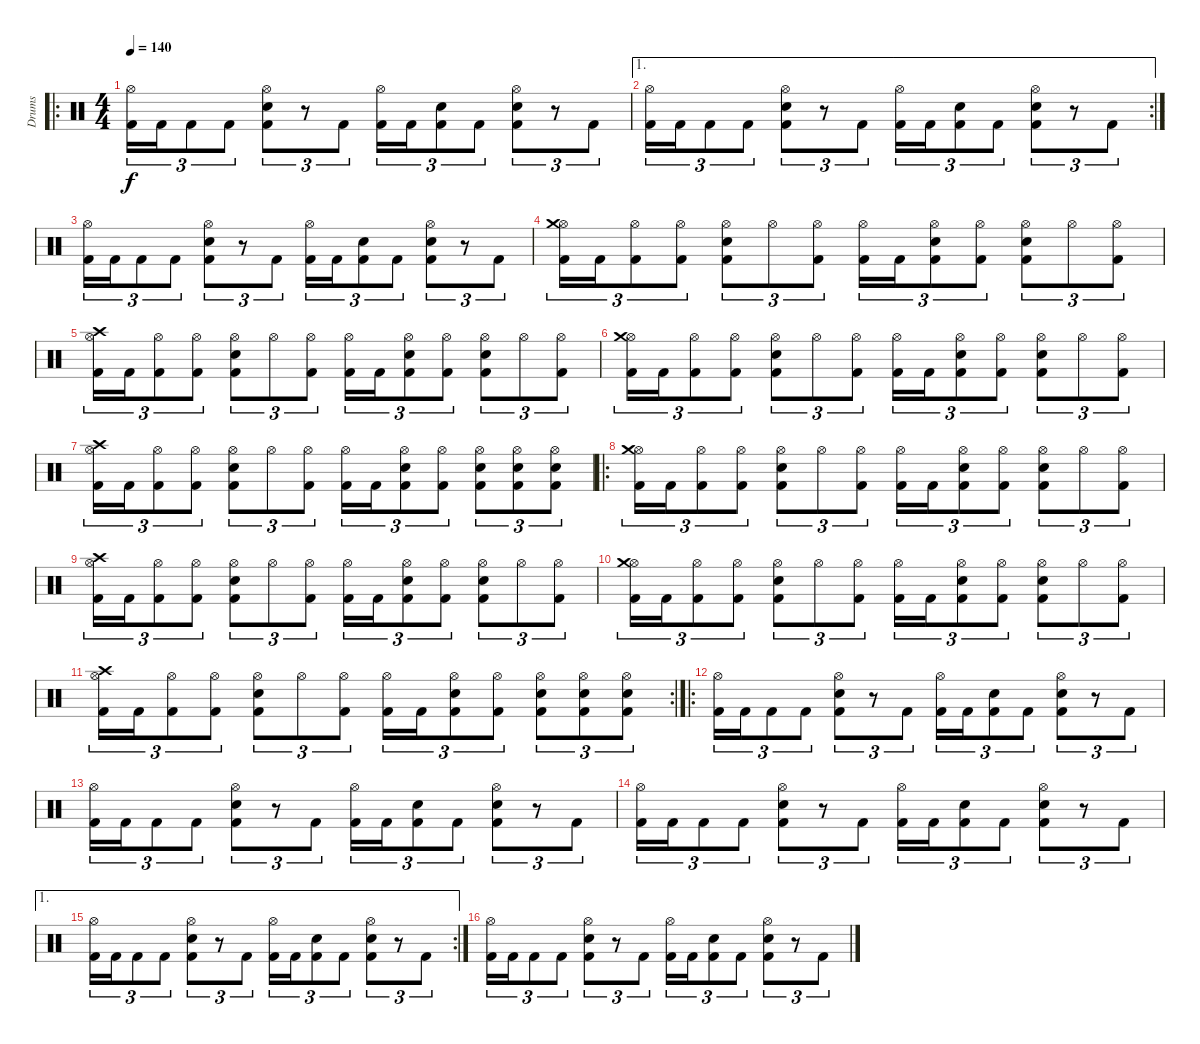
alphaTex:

\track ("Drums" "Drums") {instrument percussion}
\staff {score}
\articulation defaults
\ro
\ts (4 4)
\tempo 140
\clef neutral
\ks c
("Hi-Hat (open)" "Kick (hit) 2").16{tu (3 2) dy f} "Kick (hit) 2".16{tu (3 2)} "Kick (hit) 2".8{tu (3 2)} "Kick (hit) 2".8{tu (3 2)} ("Hi-Hat (open)" "Snare (hit) 2" "Kick (hit) 2").8{tu (3 2)} r.8{tu (3 2)} "Kick (hit) 2".8{tu (3 2)} ("Hi-Hat (open)" "Kick (hit) 2").16{tu (3 2)} "Kick (hit) 2".16{tu (3 2)} ("Snare (hit) 2" "Kick (hit) 2").8{tu (3 2)} "Kick (hit) 2".8{tu (3 2)} ("Hi-Hat (open)" "Snare (hit) 2" "Kick (hit) 2").8{tu (3 2)} r.8{tu (3 2)} "Kick (hit) 2".8{tu (3 2)} |
\ae 1
\rc 2
("Hi-Hat (open)" "Kick (hit) 2").16{tu (3 2)} "Kick (hit) 2".16{tu (3 2)} "Kick (hit) 2".8{tu (3 2)} "Kick (hit) 2".8{tu (3 2)} ("Hi-Hat (open)" "Snare (hit) 2" "Kick (hit) 2").8{tu (3 2)} r.8{tu (3 2)} "Kick (hit) 2".8{tu (3 2)} ("Hi-Hat (open)" "Kick (hit) 2").16{tu (3 2)} "Kick (hit) 2".16{tu (3 2)} ("Snare (hit) 2" "Kick (hit) 2").8{tu (3 2)} "Kick (hit) 2".8{tu (3 2)} ("Hi-Hat (open)" "Snare (hit) 2" "Kick (hit) 2").8{tu (3 2)} r.8{tu (3 2)} "Kick (hit) 2".8{tu (3 2)} |
("Hi-Hat (open)" "Kick (hit) 2").16{tu (3 2)} "Kick (hit) 2".16{tu (3 2)} "Kick (hit) 2".8{tu (3 2)} "Kick (hit) 2".8{tu (3 2)} ("Hi-Hat (open)" "Snare (hit) 2" "Kick (hit) 2").8{tu (3 2)} r.8{tu (3 2)} "Kick (hit) 2".8{tu (3 2)} ("Hi-Hat (open)" "Kick (hit) 2").16{tu (3 2)} "Kick (hit) 2".16{tu (3 2)} ("Snare (hit) 2" "Kick (hit) 2").8{tu (3 2)} "Kick (hit) 2".8{tu (3 2)} ("Hi-Hat (open)" "Snare (hit) 2" "Kick (hit) 2").8{tu (3 2)} r.8{tu (3 2)} "Kick (hit) 2".8{tu (3 2)} |
("Hi-Hat (open)" "Crash medium (hit)" "Kick (hit) 2").16{tu (3 2)} "Kick (hit) 2".16{tu (3 2)} ("Hi-Hat (open)" "Kick (hit) 2").8{tu (3 2)} ("Hi-Hat (open)" "Kick (hit) 2").8{tu (3 2)} ("Hi-Hat (open)" "Snare (hit) 2" "Kick (hit) 2").8{tu (3 2)} "Hi-Hat (open)".8{tu (3 2)} ("Hi-Hat (open)" "Kick (hit) 2").8{tu (3 2)} ("Hi-Hat (open)" "Kick (hit) 2").16{tu (3 2)} "Kick (hit) 2".16{tu (3 2)} ("Hi-Hat (open)" "Snare (hit) 2" "Kick (hit) 2").8{tu (3 2)} ("Hi-Hat (open)" "Kick (hit) 2").8{tu (3 2)} ("Hi-Hat (open)" "Snare (hit) 2" "Kick (hit) 2").8{tu (3 2)} "Hi-Hat (open)".8{tu (3 2)} ("Hi-Hat (open)" "Kick (hit) 2").8{tu (3 2)} |
("Hi-Hat (open)" "Crash high (hit)" "Kick (hit) 2").16{tu (3 2)} "Kick (hit) 2".16{tu (3 2)} ("Hi-Hat (open)" "Kick (hit) 2").8{tu (3 2)} ("Hi-Hat (open)" "Kick (hit) 2").8{tu (3 2)} ("Hi-Hat (open)" "Snare (hit) 2" "Kick (hit) 2").8{tu (3 2)} "Hi-Hat (open)".8{tu (3 2)} ("Hi-Hat (open)" "Kick (hit) 2").8{tu (3 2)} ("Hi-Hat (open)" "Kick (hit) 2").16{tu (3 2)} "Kick (hit) 2".16{tu (3 2)} ("Hi-Hat (open)" "Snare (hit) 2" "Kick (hit) 2").8{tu (3 2)} ("Hi-Hat (open)" "Kick (hit) 2").8{tu (3 2)} ("Hi-Hat (open)" "Snare (hit) 2" "Kick (hit) 2").8{tu (3 2)} "Hi-Hat (open)".8{tu (3 2)} ("Hi-Hat (open)" "Kick (hit) 2").8{tu (3 2)} |
("Hi-Hat (open)" "Crash medium (hit)" "Kick (hit) 2").16{tu (3 2)} "Kick (hit) 2".16{tu (3 2)} ("Hi-Hat (open)" "Kick (hit) 2").8{tu (3 2)} ("Hi-Hat (open)" "Kick (hit) 2").8{tu (3 2)} ("Hi-Hat (open)" "Snare (hit) 2" "Kick (hit) 2").8{tu (3 2)} "Hi-Hat (open)".8{tu (3 2)} ("Hi-Hat (open)" "Kick (hit) 2").8{tu (3 2)} ("Hi-Hat (open)" "Kick (hit) 2").16{tu (3 2)} "Kick (hit) 2".16{tu (3 2)} ("Hi-Hat (open)" "Snare (hit) 2" "Kick (hit) 2").8{tu (3 2)} ("Hi-Hat (open)" "Kick (hit) 2").8{tu (3 2)} ("Hi-Hat (open)" "Snare (hit) 2" "Kick (hit) 2").8{tu (3 2)} "Hi-Hat (open)".8{tu (3 2)} ("Hi-Hat (open)" "Kick (hit) 2").8{tu (3 2)} |
("Hi-Hat (open)" "Crash high (hit)" "Kick (hit) 2").16{tu (3 2)} "Kick (hit) 2".16{tu (3 2)} ("Hi-Hat (open)" "Kick (hit) 2").8{tu (3 2)} ("Hi-Hat (open)" "Kick (hit) 2").8{tu (3 2)} ("Hi-Hat (open)" "Snare (hit) 2" "Kick (hit) 2").8{tu (3 2)} "Hi-Hat (open)".8{tu (3 2)} ("Hi-Hat (open)" "Kick (hit) 2").8{tu (3 2)} ("Hi-Hat (open)" "Kick (hit) 2").16{tu (3 2)} "Kick (hit) 2".16{tu (3 2)} ("Hi-Hat (open)" "Snare (hit) 2" "Kick (hit) 2").8{tu (3 2)} ("Hi-Hat (open)" "Kick (hit) 2").8{tu (3 2)} ("Hi-Hat (open)" "Snare (hit) 2" "Kick (hit) 2").8{tu (3 2)} ("Hi-Hat (open)" "Snare (hit) 2" "Kick (hit) 2").8{tu (3 2)} ("Hi-Hat (open)" "Snare (hit) 2" "Kick (hit) 2").8{tu (3 2)} |
\ro
("Hi-Hat (open)" "Crash medium (hit)" "Kick (hit) 2").16{tu (3 2)} "Kick (hit) 2".16{tu (3 2)} ("Hi-Hat (open)" "Kick (hit) 2").8{tu (3 2)} ("Hi-Hat (open)" "Kick (hit) 2").8{tu (3 2)} ("Hi-Hat (open)" "Snare (hit) 2" "Kick (hit) 2").8{tu (3 2)} "Hi-Hat (open)".8{tu (3 2)} ("Hi-Hat (open)" "Kick (hit) 2").8{tu (3 2)} ("Hi-Hat (open)" "Kick (hit) 2").16{tu (3 2)} "Kick (hit) 2".16{tu (3 2)} ("Hi-Hat (open)" "Snare (hit) 2" "Kick (hit) 2").8{tu (3 2)} ("Hi-Hat (open)" "Kick (hit) 2").8{tu (3 2)} ("Hi-Hat (open)" "Snare (hit) 2" "Kick (hit) 2").8{tu (3 2)} "Hi-Hat (open)".8{tu (3 2)} ("Hi-Hat (open)" "Kick (hit) 2").8{tu (3 2)} |
("Hi-Hat (open)" "Crash high (hit)" "Kick (hit) 2").16{tu (3 2)} "Kick (hit) 2".16{tu (3 2)} ("Hi-Hat (open)" "Kick (hit) 2").8{tu (3 2)} ("Hi-Hat (open)" "Kick (hit) 2").8{tu (3 2)} ("Hi-Hat (open)" "Snare (hit) 2" "Kick (hit) 2").8{tu (3 2)} "Hi-Hat (open)".8{tu (3 2)} ("Hi-Hat (open)" "Kick (hit) 2").8{tu (3 2)} ("Hi-Hat (open)" "Kick (hit) 2").16{tu (3 2)} "Kick (hit) 2".16{tu (3 2)} ("Hi-Hat (open)" "Snare (hit) 2" "Kick (hit) 2").8{tu (3 2)} ("Hi-Hat (open)" "Kick (hit) 2").8{tu (3 2)} ("Hi-Hat (open)" "Snare (hit) 2" "Kick (hit) 2").8{tu (3 2)} "Hi-Hat (open)".8{tu (3 2)} ("Hi-Hat (open)" "Kick (hit) 2").8{tu (3 2)} |
("Hi-Hat (open)" "Crash medium (hit)" "Kick (hit) 2").16{tu (3 2)} "Kick (hit) 2".16{tu (3 2)} ("Hi-Hat (open)" "Kick (hit) 2").8{tu (3 2)} ("Hi-Hat (open)" "Kick (hit) 2").8{tu (3 2)} ("Hi-Hat (open)" "Snare (hit) 2" "Kick (hit) 2").8{tu (3 2)} "Hi-Hat (open)".8{tu (3 2)} ("Hi-Hat (open)" "Kick (hit) 2").8{tu (3 2)} ("Hi-Hat (open)" "Kick (hit) 2").16{tu (3 2)} "Kick (hit) 2".16{tu (3 2)} ("Hi-Hat (open)" "Snare (hit) 2" "Kick (hit) 2").8{tu (3 2)} ("Hi-Hat (open)" "Kick (hit) 2").8{tu (3 2)} ("Hi-Hat (open)" "Snare (hit) 2" "Kick (hit) 2").8{tu (3 2)} "Hi-Hat (open)".8{tu (3 2)} ("Hi-Hat (open)" "Kick (hit) 2").8{tu (3 2)} |
\rc 2
("Hi-Hat (open)" "Crash high (hit)" "Kick (hit) 2").16{tu (3 2)} "Kick (hit) 2".16{tu (3 2)} ("Hi-Hat (open)" "Kick (hit) 2").8{tu (3 2)} ("Hi-Hat (open)" "Kick (hit) 2").8{tu (3 2)} ("Hi-Hat (open)" "Snare (hit) 2" "Kick (hit) 2").8{tu (3 2)} "Hi-Hat (open)".8{tu (3 2)} ("Hi-Hat (open)" "Kick (hit) 2").8{tu (3 2)} ("Hi-Hat (open)" "Kick (hit) 2").16{tu (3 2)} "Kick (hit) 2".16{tu (3 2)} ("Hi-Hat (open)" "Snare (hit) 2" "Kick (hit) 2").8{tu (3 2)} ("Hi-Hat (open)" "Kick (hit) 2").8{tu (3 2)} ("Hi-Hat (open)" "Snare (hit) 2" "Kick (hit) 2").8{tu (3 2)} ("Hi-Hat (open)" "Snare (hit) 2" "Kick (hit) 2").8{tu (3 2)} ("Hi-Hat (open)" "Snare (hit) 2" "Kick (hit) 2").8{tu (3 2)} |
\ro
("Hi-Hat (open)" "Kick (hit) 2").16{tu (3 2)} "Kick (hit) 2".16{tu (3 2)} "Kick (hit) 2".8{tu (3 2)} "Kick (hit) 2".8{tu (3 2)} ("Hi-Hat (open)" "Snare (hit) 2" "Kick (hit) 2").8{tu (3 2)} r.8{tu (3 2)} "Kick (hit) 2".8{tu (3 2)} ("Hi-Hat (open)" "Kick (hit) 2").16{tu (3 2)} "Kick (hit) 2".16{tu (3 2)} ("Snare (hit) 2" "Kick (hit) 2").8{tu (3 2)} "Kick (hit) 2".8{tu (3 2)} ("Hi-Hat (open)" "Snare (hit) 2" "Kick (hit) 2").8{tu (3 2)} r.8{tu (3 2)} "Kick (hit) 2".8{tu (3 2)} |
("Hi-Hat (open)" "Kick (hit) 2").16{tu (3 2)} "Kick (hit) 2".16{tu (3 2)} "Kick (hit) 2".8{tu (3 2)} "Kick (hit) 2".8{tu (3 2)} ("Hi-Hat (open)" "Snare (hit) 2" "Kick (hit) 2").8{tu (3 2)} r.8{tu (3 2)} "Kick (hit) 2".8{tu (3 2)} ("Hi-Hat (open)" "Kick (hit) 2").16{tu (3 2)} "Kick (hit) 2".16{tu (3 2)} ("Snare (hit) 2" "Kick (hit) 2").8{tu (3 2)} "Kick (hit) 2".8{tu (3 2)} ("Hi-Hat (open)" "Snare (hit) 2" "Kick (hit) 2").8{tu (3 2)} r.8{tu (3 2)} "Kick (hit) 2".8{tu (3 2)} |
("Hi-Hat (open)" "Kick (hit) 2").16{tu (3 2)} "Kick (hit) 2".16{tu (3 2)} "Kick (hit) 2".8{tu (3 2)} "Kick (hit) 2".8{tu (3 2)} ("Hi-Hat (open)" "Snare (hit) 2" "Kick (hit) 2").8{tu (3 2)} r.8{tu (3 2)} "Kick (hit) 2".8{tu (3 2)} ("Hi-Hat (open)" "Kick (hit) 2").16{tu (3 2)} "Kick (hit) 2".16{tu (3 2)} ("Snare (hit) 2" "Kick (hit) 2").8{tu (3 2)} "Kick (hit) 2".8{tu (3 2)} ("Hi-Hat (open)" "Snare (hit) 2" "Kick (hit) 2").8{tu (3 2)} r.8{tu (3 2)} "Kick (hit) 2".8{tu (3 2)} |
\ae 1
\rc 2
("Hi-Hat (open)" "Kick (hit) 2").16{tu (3 2)} "Kick (hit) 2".16{tu (3 2)} "Kick (hit) 2".8{tu (3 2)} "Kick (hit) 2".8{tu (3 2)} ("Hi-Hat (open)" "Snare (hit) 2" "Kick (hit) 2").8{tu (3 2)} r.8{tu (3 2)} "Kick (hit) 2".8{tu (3 2)} ("Hi-Hat (open)" "Kick (hit) 2").16{tu (3 2)} "Kick (hit) 2".16{tu (3 2)} ("Snare (hit) 2" "Kick (hit) 2").8{tu (3 2)} "Kick (hit) 2".8{tu (3 2)} ("Hi-Hat (open)" "Snare (hit) 2" "Kick (hit) 2").8{tu (3 2)} r.8{tu (3 2)} "Kick (hit) 2".8{tu (3 2)} |
("Hi-Hat (open)" "Kick (hit) 2").16{tu (3 2)} "Kick (hit) 2".16{tu (3 2)} "Kick (hit) 2".8{tu (3 2)} "Kick (hit) 2".8{tu (3 2)} ("Hi-Hat (open)" "Snare (hit) 2" "Kick (hit) 2").8{tu (3 2)} r.8{tu (3 2)} "Kick (hit) 2".8{tu (3 2)} ("Hi-Hat (open)" "Kick (hit) 2").16{tu (3 2)} "Kick (hit) 2".16{tu (3 2)} ("Snare (hit) 2" "Kick (hit) 2").8{tu (3 2)} "Kick (hit) 2".8{tu (3 2)} ("Hi-Hat (open)" "Snare (hit) 2" "Kick (hit) 2").8{tu (3 2)} r.8{tu (3 2)} "Kick (hit) 2".8{tu (3 2)}
